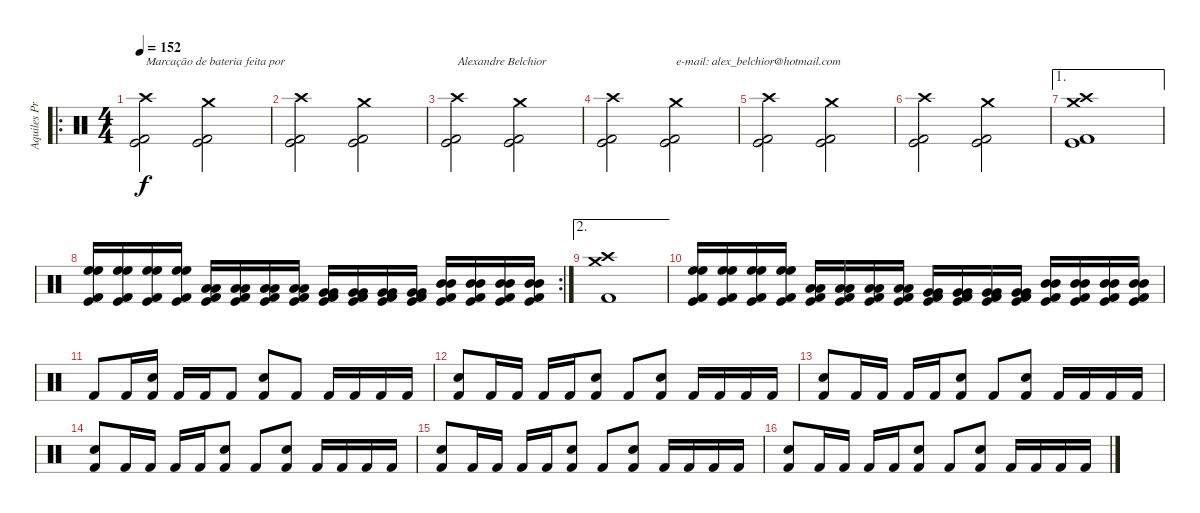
\track ("Aquiles Priester" "Aquiles Pr") {instrument percussion}
\staff {score}
\articulation defaults
\ro
\ts (4 4)
\tempo 152
\clef neutral
\ks c
("Crash high (hit)" "Kick (hit)" "Kick (hit) 2").2{txt "Marcação de bateria feita por" dy f} ("Crash medium (hit)" "Kick (hit)" "Kick (hit) 2").2 |
("Crash high (hit)" "Kick (hit)" "Kick (hit) 2").2 ("Crash medium (hit)" "Kick (hit)" "Kick (hit) 2").2 |
("Crash high (hit)" "Kick (hit)" "Kick (hit) 2").2{txt "Alexandre Belchior"} ("Crash medium (hit)" "Kick (hit)" "Kick (hit) 2").2 |
("Crash high (hit)" "Kick (hit)" "Kick (hit) 2").2 ("Crash medium (hit)" "Kick (hit)" "Kick (hit) 2").2{txt "e-mail: alex_belchior@hotmail.com"} |
("Crash high (hit)" "Kick (hit)" "Kick (hit) 2").2 ("Crash medium (hit)" "Kick (hit)" "Kick (hit) 2").2 |
("Crash high (hit)" "Kick (hit)" "Kick (hit) 2").2 ("Crash medium (hit)" "Kick (hit)" "Kick (hit) 2").2 |
\ae 1
("Crash high (hit)" "Crash medium (hit)" "Kick (hit)" "Kick (hit) 2").1 |
\rc 2
("High Floor Tom (hit)" "High Floor Tom (hit)" "Kick (hit)" "Kick (hit) 2").16 ("High Floor Tom (hit)" "High Floor Tom (hit)" "Kick (hit)" "Kick (hit) 2").16 ("High Floor Tom (hit)" "High Floor Tom (hit)" "Kick (hit)" "Kick (hit) 2").16 ("High Floor Tom (hit)" "High Floor Tom (hit)" "Kick (hit)" "Kick (hit) 2").16 ("Low Tom (hit)" "Low Tom (hit)" "Kick (hit)" "Kick (hit) 2").16 ("Low Tom (hit)" "Low Tom (hit)" "Kick (hit)" "Kick (hit) 2").16 ("Low Tom (hit)" "Low Tom (hit)" "Kick (hit)" "Kick (hit) 2").16 ("Low Tom (hit)" "Low Tom (hit)" "Kick (hit)" "Kick (hit) 2").16 ("Very Low Tom (hit)" "Very Low Tom (hit)" "Kick (hit)" "Kick (hit) 2").16 ("Very Low Tom (hit)" "Very Low Tom (hit)" "Kick (hit)" "Kick (hit) 2").16 ("Very Low Tom (hit)" "Very Low Tom (hit)" "Kick (hit)" "Kick (hit) 2").16 ("Very Low Tom (hit)" "Very Low Tom (hit)" "Kick (hit)" "Kick (hit) 2").16 ("Mid Tom (hit)" "Mid Tom (hit)" "Kick (hit)" "Kick (hit) 2").16 ("Mid Tom (hit)" "Mid Tom (hit)" "Kick (hit)" "Kick (hit) 2").16 ("Mid Tom (hit)" "Mid Tom (hit)" "Kick (hit)" "Kick (hit) 2").16 ("Mid Tom (hit)" "Mid Tom (hit)" "Kick (hit)" "Kick (hit) 2").16 |
\ae 2
("Crash high (hit)" "Crash medium (hit)" "Kick (hit) 2").1 |
("High Floor Tom (hit)" "High Floor Tom (hit)" "Kick (hit)" "Kick (hit) 2").16 ("High Floor Tom (hit)" "High Floor Tom (hit)" "Kick (hit)" "Kick (hit) 2").16 ("High Floor Tom (hit)" "High Floor Tom (hit)" "Kick (hit)" "Kick (hit) 2").16 ("High Floor Tom (hit)" "High Floor Tom (hit)" "Kick (hit)" "Kick (hit) 2").16 ("Low Tom (hit)" "Low Tom (hit)" "Kick (hit)" "Kick (hit) 2").16 ("Low Tom (hit)" "Low Tom (hit)" "Kick (hit)" "Kick (hit) 2").16 ("Low Tom (hit)" "Low Tom (hit)" "Kick (hit)" "Kick (hit) 2").16 ("Low Tom (hit)" "Low Tom (hit)" "Kick (hit)" "Kick (hit) 2").16 ("Very Low Tom (hit)" "Very Low Tom (hit)" "Kick (hit)" "Kick (hit) 2").16 ("Very Low Tom (hit)" "Very Low Tom (hit)" "Kick (hit)" "Kick (hit) 2").16 ("Very Low Tom (hit)" "Very Low Tom (hit)" "Kick (hit)" "Kick (hit) 2").16 ("Very Low Tom (hit)" "Very Low Tom (hit)" "Kick (hit)" "Kick (hit) 2").16 ("Mid Tom (hit)" "Mid Tom (hit)" "Kick (hit)" "Kick (hit) 2").16 ("Mid Tom (hit)" "Mid Tom (hit)" "Kick (hit)" "Kick (hit) 2").16 ("Mid Tom (hit)" "Mid Tom (hit)" "Kick (hit)" "Kick (hit) 2").16 ("Mid Tom (hit)" "Mid Tom (hit)" "Kick (hit)" "Kick (hit) 2").16 |
"Kick (hit) 2".8 "Kick (hit) 2".16 ("Electric Snare (hit)" "Kick (hit) 2").16 "Kick (hit) 2".16 "Kick (hit) 2".16 "Kick (hit) 2".8 ("Electric Snare (hit)" "Kick (hit) 2").8 "Kick (hit) 2".8 "Kick (hit) 2".16 "Kick (hit) 2".16 "Kick (hit) 2".16 "Kick (hit) 2".16 |
("Electric Snare (hit)" "Kick (hit) 2").8 "Kick (hit) 2".16 "Kick (hit) 2".16 "Kick (hit) 2".16 "Kick (hit) 2".16 ("Electric Snare (hit)" "Kick (hit) 2").8 "Kick (hit) 2".8 ("Electric Snare (hit)" "Kick (hit) 2").8 "Kick (hit) 2".16 "Kick (hit) 2".16 "Kick (hit) 2".16 "Kick (hit) 2".16 |
("Electric Snare (hit)" "Kick (hit) 2").8 "Kick (hit) 2".16 "Kick (hit) 2".16 "Kick (hit) 2".16 "Kick (hit) 2".16 ("Electric Snare (hit)" "Kick (hit) 2").8 "Kick (hit) 2".8 ("Electric Snare (hit)" "Kick (hit) 2").8 "Kick (hit) 2".16 "Kick (hit) 2".16 "Kick (hit) 2".16 "Kick (hit) 2".16 |
("Electric Snare (hit)" "Kick (hit) 2").8 "Kick (hit) 2".16 "Kick (hit) 2".16 "Kick (hit) 2".16 "Kick (hit) 2".16 ("Electric Snare (hit)" "Kick (hit) 2").8 "Kick (hit) 2".8 ("Electric Snare (hit)" "Kick (hit) 2").8 "Kick (hit) 2".16 "Kick (hit) 2".16 "Kick (hit) 2".16 "Kick (hit) 2".16 |
("Electric Snare (hit)" "Kick (hit) 2").8 "Kick (hit) 2".16 "Kick (hit) 2".16 "Kick (hit) 2".16 "Kick (hit) 2".16 ("Electric Snare (hit)" "Kick (hit) 2").8 "Kick (hit) 2".8 ("Electric Snare (hit)" "Kick (hit) 2").8 "Kick (hit) 2".16 "Kick (hit) 2".16 "Kick (hit) 2".16 "Kick (hit) 2".16 |
("Electric Snare (hit)" "Kick (hit) 2").8 "Kick (hit) 2".16 "Kick (hit) 2".16 "Kick (hit) 2".16 "Kick (hit) 2".16 ("Electric Snare (hit)" "Kick (hit) 2").8 "Kick (hit) 2".8 ("Electric Snare (hit)" "Kick (hit) 2").8 "Kick (hit) 2".16 "Kick (hit) 2".16 "Kick (hit) 2".16 "Kick (hit) 2".16
